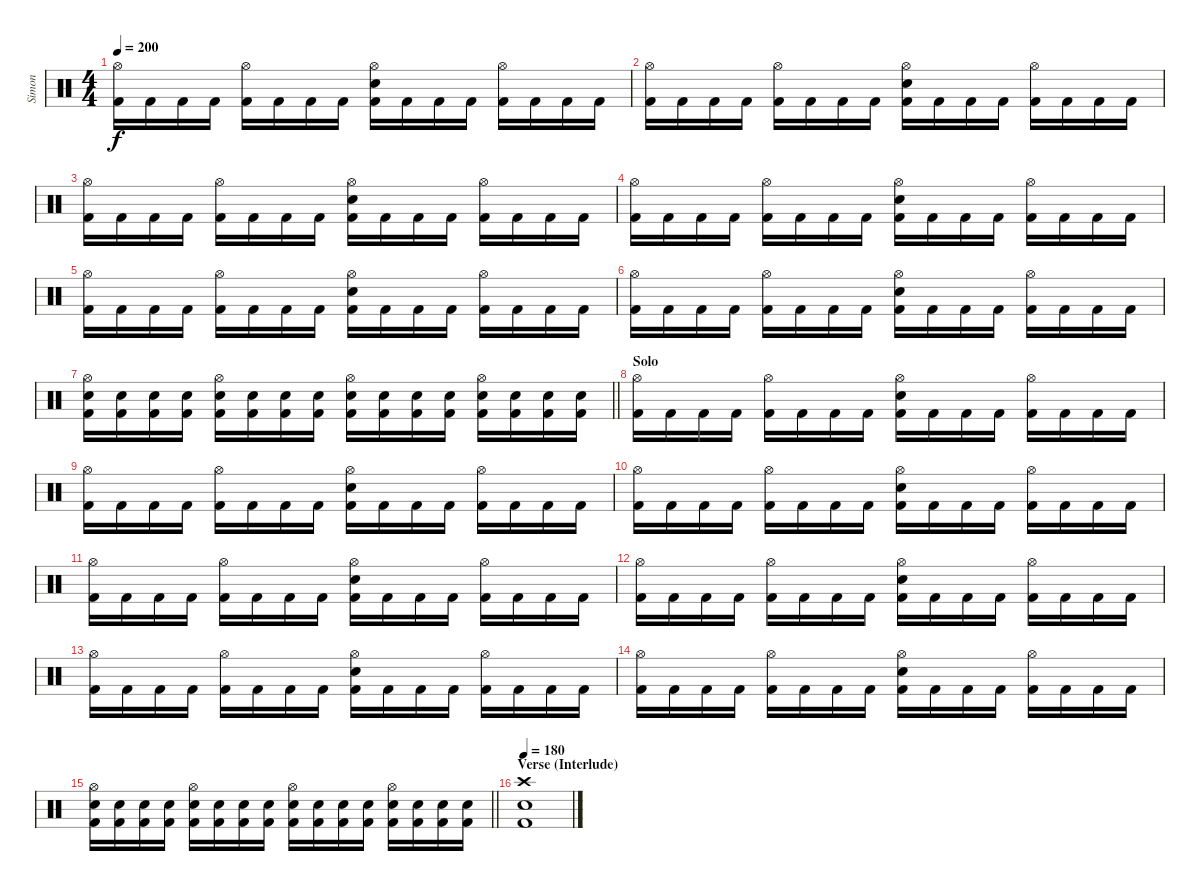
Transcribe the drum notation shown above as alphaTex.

\track ("Simon" "Simon") {instrument percussion}
\staff {score}
\articulation defaults
\ts (4 4)
\tempo 200
\clef neutral
\ks c
("Hi-Hat (open)" "Kick (hit) 2").16{dy f} "Kick (hit) 2".16 "Kick (hit) 2".16 "Kick (hit) 2".16 ("Hi-Hat (open)" "Kick (hit) 2").16 "Kick (hit) 2".16 "Kick (hit) 2".16 "Kick (hit) 2".16 ("Hi-Hat (open)" "Electric Snare (hit)" "Kick (hit) 2").16 "Kick (hit) 2".16 "Kick (hit) 2".16 "Kick (hit) 2".16 ("Hi-Hat (open)" "Kick (hit) 2").16 "Kick (hit) 2".16 "Kick (hit) 2".16 "Kick (hit) 2".16 |
("Hi-Hat (open)" "Kick (hit) 2").16 "Kick (hit) 2".16 "Kick (hit) 2".16 "Kick (hit) 2".16 ("Hi-Hat (open)" "Kick (hit) 2").16 "Kick (hit) 2".16 "Kick (hit) 2".16 "Kick (hit) 2".16 ("Hi-Hat (open)" "Electric Snare (hit)" "Kick (hit) 2").16 "Kick (hit) 2".16 "Kick (hit) 2".16 "Kick (hit) 2".16 ("Hi-Hat (open)" "Kick (hit) 2").16 "Kick (hit) 2".16 "Kick (hit) 2".16 "Kick (hit) 2".16 |
("Hi-Hat (open)" "Kick (hit) 2").16 "Kick (hit) 2".16 "Kick (hit) 2".16 "Kick (hit) 2".16 ("Hi-Hat (open)" "Kick (hit) 2").16 "Kick (hit) 2".16 "Kick (hit) 2".16 "Kick (hit) 2".16 ("Hi-Hat (open)" "Electric Snare (hit)" "Kick (hit) 2").16 "Kick (hit) 2".16 "Kick (hit) 2".16 "Kick (hit) 2".16 ("Hi-Hat (open)" "Kick (hit) 2").16 "Kick (hit) 2".16 "Kick (hit) 2".16 "Kick (hit) 2".16 |
("Hi-Hat (open)" "Kick (hit) 2").16 "Kick (hit) 2".16 "Kick (hit) 2".16 "Kick (hit) 2".16 ("Hi-Hat (open)" "Kick (hit) 2").16 "Kick (hit) 2".16 "Kick (hit) 2".16 "Kick (hit) 2".16 ("Hi-Hat (open)" "Electric Snare (hit)" "Kick (hit) 2").16 "Kick (hit) 2".16 "Kick (hit) 2".16 "Kick (hit) 2".16 ("Hi-Hat (open)" "Kick (hit) 2").16 "Kick (hit) 2".16 "Kick (hit) 2".16 "Kick (hit) 2".16 |
("Hi-Hat (open)" "Kick (hit) 2").16 "Kick (hit) 2".16 "Kick (hit) 2".16 "Kick (hit) 2".16 ("Hi-Hat (open)" "Kick (hit) 2").16 "Kick (hit) 2".16 "Kick (hit) 2".16 "Kick (hit) 2".16 ("Hi-Hat (open)" "Electric Snare (hit)" "Kick (hit) 2").16 "Kick (hit) 2".16 "Kick (hit) 2".16 "Kick (hit) 2".16 ("Hi-Hat (open)" "Kick (hit) 2").16 "Kick (hit) 2".16 "Kick (hit) 2".16 "Kick (hit) 2".16 |
("Hi-Hat (open)" "Kick (hit) 2").16 "Kick (hit) 2".16 "Kick (hit) 2".16 "Kick (hit) 2".16 ("Hi-Hat (open)" "Kick (hit) 2").16 "Kick (hit) 2".16 "Kick (hit) 2".16 "Kick (hit) 2".16 ("Hi-Hat (open)" "Electric Snare (hit)" "Kick (hit) 2").16 "Kick (hit) 2".16 "Kick (hit) 2".16 "Kick (hit) 2".16 ("Hi-Hat (open)" "Kick (hit) 2").16 "Kick (hit) 2".16 "Kick (hit) 2".16 "Kick (hit) 2".16 |
\barLineRight lightlight
("Hi-Hat (open)" "Electric Snare (hit)" "Kick (hit) 2").16 ("Electric Snare (hit)" "Kick (hit) 2").16 ("Electric Snare (hit)" "Kick (hit) 2").16 ("Electric Snare (hit)" "Kick (hit) 2").16 ("Hi-Hat (open)" "Electric Snare (hit)" "Kick (hit) 2").16 ("Electric Snare (hit)" "Kick (hit) 2").16 ("Electric Snare (hit)" "Kick (hit) 2").16 ("Electric Snare (hit)" "Kick (hit) 2").16 ("Hi-Hat (open)" "Electric Snare (hit)" "Kick (hit) 2").16 ("Electric Snare (hit)" "Kick (hit) 2").16 ("Electric Snare (hit)" "Kick (hit) 2").16 ("Electric Snare (hit)" "Kick (hit) 2").16 ("Hi-Hat (open)" "Electric Snare (hit)" "Kick (hit) 2").16 ("Electric Snare (hit)" "Kick (hit) 2").16 ("Electric Snare (hit)" "Kick (hit) 2").16 ("Electric Snare (hit)" "Kick (hit) 2").16 |
\section ("" "Solo")
("Hi-Hat (open)" "Kick (hit) 2").16 "Kick (hit) 2".16 "Kick (hit) 2".16 "Kick (hit) 2".16 ("Hi-Hat (open)" "Kick (hit) 2").16 "Kick (hit) 2".16 "Kick (hit) 2".16 "Kick (hit) 2".16 ("Hi-Hat (open)" "Electric Snare (hit)" "Kick (hit) 2").16 "Kick (hit) 2".16 "Kick (hit) 2".16 "Kick (hit) 2".16 ("Hi-Hat (open)" "Kick (hit) 2").16 "Kick (hit) 2".16 "Kick (hit) 2".16 "Kick (hit) 2".16 |
("Hi-Hat (open)" "Kick (hit) 2").16 "Kick (hit) 2".16 "Kick (hit) 2".16 "Kick (hit) 2".16 ("Hi-Hat (open)" "Kick (hit) 2").16 "Kick (hit) 2".16 "Kick (hit) 2".16 "Kick (hit) 2".16 ("Hi-Hat (open)" "Electric Snare (hit)" "Kick (hit) 2").16 "Kick (hit) 2".16 "Kick (hit) 2".16 "Kick (hit) 2".16 ("Hi-Hat (open)" "Kick (hit) 2").16 "Kick (hit) 2".16 "Kick (hit) 2".16 "Kick (hit) 2".16 |
("Hi-Hat (open)" "Kick (hit) 2").16 "Kick (hit) 2".16 "Kick (hit) 2".16 "Kick (hit) 2".16 ("Hi-Hat (open)" "Kick (hit) 2").16 "Kick (hit) 2".16 "Kick (hit) 2".16 "Kick (hit) 2".16 ("Hi-Hat (open)" "Electric Snare (hit)" "Kick (hit) 2").16 "Kick (hit) 2".16 "Kick (hit) 2".16 "Kick (hit) 2".16 ("Hi-Hat (open)" "Kick (hit) 2").16 "Kick (hit) 2".16 "Kick (hit) 2".16 "Kick (hit) 2".16 |
("Hi-Hat (open)" "Kick (hit) 2").16 "Kick (hit) 2".16 "Kick (hit) 2".16 "Kick (hit) 2".16 ("Hi-Hat (open)" "Kick (hit) 2").16 "Kick (hit) 2".16 "Kick (hit) 2".16 "Kick (hit) 2".16 ("Hi-Hat (open)" "Electric Snare (hit)" "Kick (hit) 2").16 "Kick (hit) 2".16 "Kick (hit) 2".16 "Kick (hit) 2".16 ("Hi-Hat (open)" "Kick (hit) 2").16 "Kick (hit) 2".16 "Kick (hit) 2".16 "Kick (hit) 2".16 |
("Hi-Hat (open)" "Kick (hit) 2").16 "Kick (hit) 2".16 "Kick (hit) 2".16 "Kick (hit) 2".16 ("Hi-Hat (open)" "Kick (hit) 2").16 "Kick (hit) 2".16 "Kick (hit) 2".16 "Kick (hit) 2".16 ("Hi-Hat (open)" "Electric Snare (hit)" "Kick (hit) 2").16 "Kick (hit) 2".16 "Kick (hit) 2".16 "Kick (hit) 2".16 ("Hi-Hat (open)" "Kick (hit) 2").16 "Kick (hit) 2".16 "Kick (hit) 2".16 "Kick (hit) 2".16 |
("Hi-Hat (open)" "Kick (hit) 2").16 "Kick (hit) 2".16 "Kick (hit) 2".16 "Kick (hit) 2".16 ("Hi-Hat (open)" "Kick (hit) 2").16 "Kick (hit) 2".16 "Kick (hit) 2".16 "Kick (hit) 2".16 ("Hi-Hat (open)" "Electric Snare (hit)" "Kick (hit) 2").16 "Kick (hit) 2".16 "Kick (hit) 2".16 "Kick (hit) 2".16 ("Hi-Hat (open)" "Kick (hit) 2").16 "Kick (hit) 2".16 "Kick (hit) 2".16 "Kick (hit) 2".16 |
("Hi-Hat (open)" "Kick (hit) 2").16 "Kick (hit) 2".16 "Kick (hit) 2".16 "Kick (hit) 2".16 ("Hi-Hat (open)" "Kick (hit) 2").16 "Kick (hit) 2".16 "Kick (hit) 2".16 "Kick (hit) 2".16 ("Hi-Hat (open)" "Electric Snare (hit)" "Kick (hit) 2").16 "Kick (hit) 2".16 "Kick (hit) 2".16 "Kick (hit) 2".16 ("Hi-Hat (open)" "Kick (hit) 2").16 "Kick (hit) 2".16 "Kick (hit) 2".16 "Kick (hit) 2".16 |
\barLineRight lightlight
("Hi-Hat (open)" "Electric Snare (hit)" "Kick (hit) 2").16 ("Electric Snare (hit)" "Kick (hit) 2").16 ("Electric Snare (hit)" "Kick (hit) 2").16 ("Electric Snare (hit)" "Kick (hit) 2").16 ("Hi-Hat (open)" "Electric Snare (hit)" "Kick (hit) 2").16 ("Electric Snare (hit)" "Kick (hit) 2").16 ("Electric Snare (hit)" "Kick (hit) 2").16 ("Electric Snare (hit)" "Kick (hit) 2").16 ("Hi-Hat (open)" "Electric Snare (hit)" "Kick (hit) 2").16 ("Electric Snare (hit)" "Kick (hit) 2").16 ("Electric Snare (hit)" "Kick (hit) 2").16 ("Electric Snare (hit)" "Kick (hit) 2").16 ("Hi-Hat (open)" "Electric Snare (hit)" "Kick (hit) 2").16 ("Electric Snare (hit)" "Kick (hit) 2").16 ("Electric Snare (hit)" "Kick (hit) 2").16 ("Electric Snare (hit)" "Kick (hit) 2").16 |
\section ("" "Verse (Interlude)")
\tempo 180
("Crash high (hit)" "Kick (hit) 2" "Electric Snare (hit)").1
